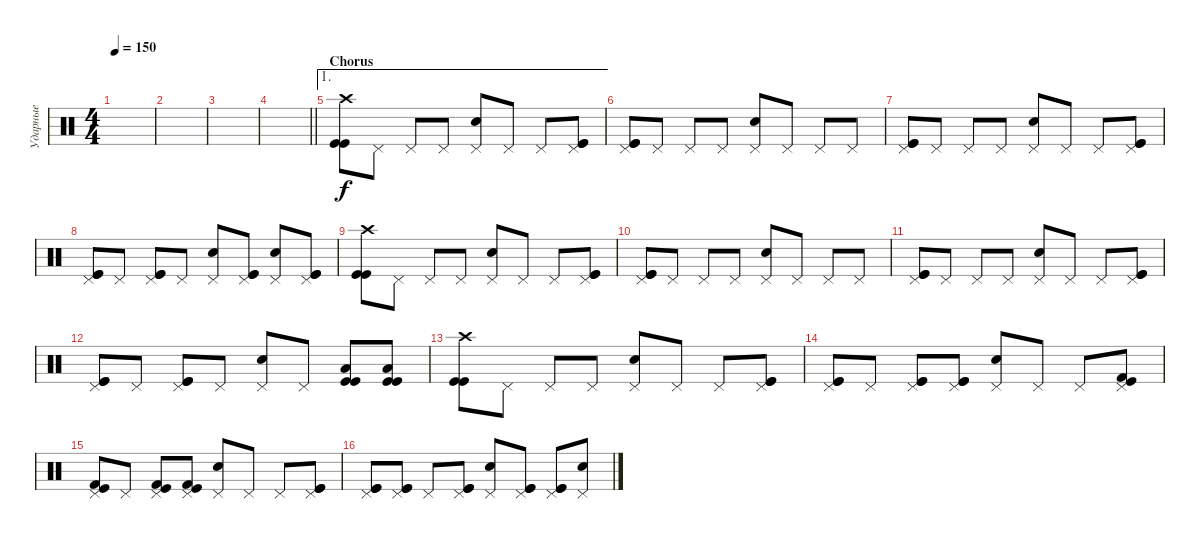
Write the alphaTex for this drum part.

\track ("Ударные" "Ударные") {instrument percussion}
\staff {score}
\articulation defaults
\ts (4 4)
\tempo 150
\clef neutral
\ks c
|
|
|
\barLineRight lightlight
|
\ae 1
\section ("" "Chorus")
("Crash high (hit)" "Kick (hit)" "Kick (hit)").8 "Pedal Hi-Hat (hit)".8 "Pedal Hi-Hat (hit)".8 "Pedal Hi-Hat (hit)".8 ("Pedal Hi-Hat (hit)" "Electric Snare (hit)").8 "Pedal Hi-Hat (hit)".8 "Pedal Hi-Hat (hit)".8 ("Pedal Hi-Hat (hit)" "Kick (hit)" "Kick (hit)").8 |
("Pedal Hi-Hat (hit)" "Kick (hit)" "Kick (hit)").8 "Pedal Hi-Hat (hit)".8 "Pedal Hi-Hat (hit)".8 "Pedal Hi-Hat (hit)".8 ("Pedal Hi-Hat (hit)" "Electric Snare (hit)").8 "Pedal Hi-Hat (hit)".8 "Pedal Hi-Hat (hit)".8 "Pedal Hi-Hat (hit)".8 |
("Pedal Hi-Hat (hit)" "Kick (hit)" "Kick (hit)").8 "Pedal Hi-Hat (hit)".8 "Pedal Hi-Hat (hit)".8 "Pedal Hi-Hat (hit)".8 ("Pedal Hi-Hat (hit)" "Electric Snare (hit)").8 "Pedal Hi-Hat (hit)".8 "Pedal Hi-Hat (hit)".8 ("Pedal Hi-Hat (hit)" "Kick (hit)" "Kick (hit)").8 |
("Pedal Hi-Hat (hit)" "Kick (hit)" "Kick (hit)").8 "Pedal Hi-Hat (hit)".8 ("Pedal Hi-Hat (hit)" "Kick (hit)" "Kick (hit)").8 "Pedal Hi-Hat (hit)".8 ("Pedal Hi-Hat (hit)" "Electric Snare (hit)").8 ("Pedal Hi-Hat (hit)" "Kick (hit)" "Kick (hit)").8 ("Pedal Hi-Hat (hit)" "Electric Snare (hit)").8 ("Pedal Hi-Hat (hit)" "Kick (hit)" "Kick (hit)").8 |
("Crash high (hit)" "Kick (hit)" "Kick (hit)").8 "Pedal Hi-Hat (hit)".8 "Pedal Hi-Hat (hit)".8 "Pedal Hi-Hat (hit)".8 ("Pedal Hi-Hat (hit)" "Electric Snare (hit)").8 "Pedal Hi-Hat (hit)".8 "Pedal Hi-Hat (hit)".8 ("Pedal Hi-Hat (hit)" "Kick (hit)" "Kick (hit)").8 |
("Pedal Hi-Hat (hit)" "Kick (hit)" "Kick (hit)").8 "Pedal Hi-Hat (hit)".8 "Pedal Hi-Hat (hit)".8 "Pedal Hi-Hat (hit)".8 ("Pedal Hi-Hat (hit)" "Electric Snare (hit)").8 "Pedal Hi-Hat (hit)".8 "Pedal Hi-Hat (hit)".8 "Pedal Hi-Hat (hit)".8 |
("Pedal Hi-Hat (hit)" "Kick (hit)" "Kick (hit)").8 "Pedal Hi-Hat (hit)".8 "Pedal Hi-Hat (hit)".8 "Pedal Hi-Hat (hit)".8 ("Pedal Hi-Hat (hit)" "Electric Snare (hit)").8 "Pedal Hi-Hat (hit)".8 "Pedal Hi-Hat (hit)".8 ("Pedal Hi-Hat (hit)" "Kick (hit)" "Kick (hit)").8 |
("Pedal Hi-Hat (hit)" "Kick (hit)" "Kick (hit)").8 "Pedal Hi-Hat (hit)".8 ("Pedal Hi-Hat (hit)" "Kick (hit)" "Kick (hit)").8 "Pedal Hi-Hat (hit)".8 ("Pedal Hi-Hat (hit)" "Electric Snare (hit)").8 "Pedal Hi-Hat (hit)".8 ("Low Tom (hit)" "Kick (hit)" "Kick (hit)").8 ("Low Tom (hit)" "Kick (hit)" "Kick (hit)").8 |
("Crash high (hit)" "Kick (hit)" "Kick (hit)").8 "Pedal Hi-Hat (hit)".8 "Pedal Hi-Hat (hit)".8 "Pedal Hi-Hat (hit)".8 ("Pedal Hi-Hat (hit)" "Electric Snare (hit)").8 "Pedal Hi-Hat (hit)".8 "Pedal Hi-Hat (hit)".8 ("Pedal Hi-Hat (hit)" "Kick (hit)" "Kick (hit)").8 |
("Pedal Hi-Hat (hit)" "Kick (hit)" "Kick (hit)").8 "Pedal Hi-Hat (hit)".8 ("Pedal Hi-Hat (hit)" "Kick (hit)" "Kick (hit)").8 ("Pedal Hi-Hat (hit)" "Kick (hit)" "Kick (hit)").8 ("Pedal Hi-Hat (hit)" "Electric Snare (hit)").8 "Pedal Hi-Hat (hit)".8 "Pedal Hi-Hat (hit)".8 ("Pedal Hi-Hat (hit)" "Kick (hit)" "Kick (hit) 2").8 |
("Pedal Hi-Hat (hit)" "Kick (hit)" "Kick (hit) 2").8 "Pedal Hi-Hat (hit)".8 ("Pedal Hi-Hat (hit)" "Kick (hit)" "Kick (hit) 2").8 ("Pedal Hi-Hat (hit)" "Kick (hit)" "Kick (hit) 2").8 ("Pedal Hi-Hat (hit)" "Electric Snare (hit)").8 "Pedal Hi-Hat (hit)".8 "Pedal Hi-Hat (hit)".8 ("Pedal Hi-Hat (hit)" "Kick (hit)" "Kick (hit)").8 |
("Pedal Hi-Hat (hit)" "Kick (hit)" "Kick (hit)").8 ("Pedal Hi-Hat (hit)" "Kick (hit)" "Kick (hit)").8 "Pedal Hi-Hat (hit)".8 ("Pedal Hi-Hat (hit)" "Kick (hit)" "Kick (hit)").8 ("Pedal Hi-Hat (hit)" "Electric Snare (hit)").8 ("Pedal Hi-Hat (hit)" "Kick (hit)" "Kick (hit)").8 ("Pedal Hi-Hat (hit)" "Kick (hit)" "Kick (hit)").8 ("Pedal Hi-Hat (hit)" "Electric Snare (hit)").8
